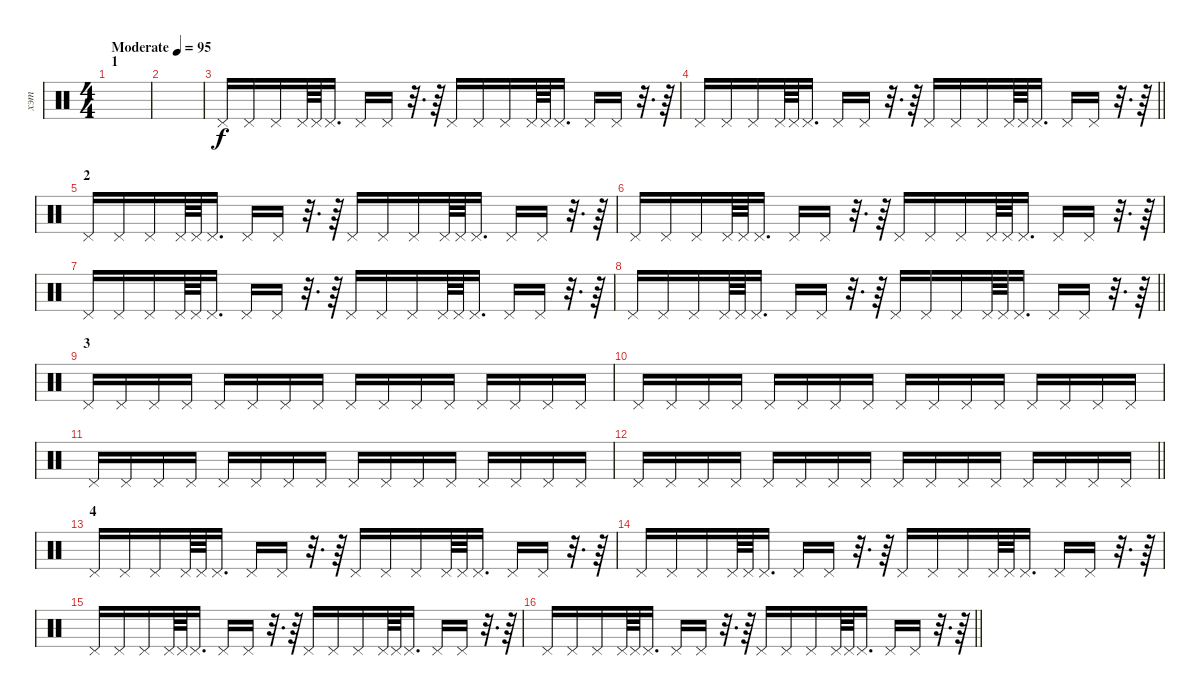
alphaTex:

\track ("хэт" "хэт") {instrument percussion}
\staff {score}
\articulation defaults
\ts (4 4)
\section ("" "1")
\tempo (95 "Moderate")
\clef neutral
\ks c
|
|
"Pedal Hi-Hat (hit)".16 "Pedal Hi-Hat (hit)".16 "Pedal Hi-Hat (hit)".16 "Pedal Hi-Hat (hit)".64 "Pedal Hi-Hat (hit)".64 "Pedal Hi-Hat (hit)".16{d} "Pedal Hi-Hat (hit)".16 "Pedal Hi-Hat (hit)".16 r.32{d} r.64 "Pedal Hi-Hat (hit)".16 "Pedal Hi-Hat (hit)".16 "Pedal Hi-Hat (hit)".16 "Pedal Hi-Hat (hit)".64 "Pedal Hi-Hat (hit)".64 "Pedal Hi-Hat (hit)".16{d} "Pedal Hi-Hat (hit)".16 "Pedal Hi-Hat (hit)".16 r.32{d} r.64 |
\barLineRight lightlight "Pedal Hi-Hat (hit)".16 "Pedal Hi-Hat (hit)".16 "Pedal Hi-Hat (hit)".16 "Pedal Hi-Hat (hit)".64 "Pedal Hi-Hat (hit)".64 "Pedal Hi-Hat (hit)".16{d} "Pedal Hi-Hat (hit)".16 "Pedal Hi-Hat (hit)".16
r.32{d} r.64 "Pedal Hi-Hat (hit)".16 "Pedal Hi-Hat (hit)".16 "Pedal Hi-Hat (hit)".16 "Pedal Hi-Hat (hit)".64 "Pedal Hi-Hat (hit)".64 "Pedal Hi-Hat (hit)".16{d} "Pedal Hi-Hat (hit)".16 "Pedal Hi-Hat (hit)".16 r.32{d} r.64 |
\section ("" "2")
"Pedal Hi-Hat (hit)".16 "Pedal Hi-Hat (hit)".16 "Pedal Hi-Hat (hit)".16 "Pedal Hi-Hat (hit)".64 "Pedal Hi-Hat (hit)".64 "Pedal Hi-Hat (hit)".16{d} "Pedal Hi-Hat (hit)".16 "Pedal Hi-Hat (hit)".16 r.32{d} r.64 "Pedal Hi-Hat (hit)".16 "Pedal Hi-Hat (hit)".16 "Pedal Hi-Hat (hit)".16 "Pedal Hi-Hat (hit)".64 "Pedal Hi-Hat (hit)".64 "Pedal Hi-Hat (hit)".16{d} "Pedal Hi-Hat (hit)".16 "Pedal Hi-Hat (hit)".16 r.32{d} r.64 |
"Pedal Hi-Hat (hit)".16 "Pedal Hi-Hat (hit)".16 "Pedal Hi-Hat (hit)".16 "Pedal Hi-Hat (hit)".64 "Pedal Hi-Hat (hit)".64 "Pedal Hi-Hat (hit)".16{d} "Pedal Hi-Hat (hit)".16 "Pedal Hi-Hat (hit)".16 r.32{d} r.64 "Pedal Hi-Hat (hit)".16 "Pedal Hi-Hat (hit)".16 "Pedal Hi-Hat (hit)".16 "Pedal Hi-Hat (hit)".64 "Pedal Hi-Hat (hit)".64 "Pedal Hi-Hat (hit)".16{d} "Pedal Hi-Hat (hit)".16 "Pedal Hi-Hat (hit)".16 r.32{d} r.64 |
"Pedal Hi-Hat (hit)".16 "Pedal Hi-Hat (hit)".16 "Pedal Hi-Hat (hit)".16 "Pedal Hi-Hat (hit)".64 "Pedal Hi-Hat (hit)".64 "Pedal Hi-Hat (hit)".16{d} "Pedal Hi-Hat (hit)".16 "Pedal Hi-Hat (hit)".16 r.32{d} r.64 "Pedal Hi-Hat (hit)".16 "Pedal Hi-Hat (hit)".16 "Pedal Hi-Hat (hit)".16 "Pedal Hi-Hat (hit)".64 "Pedal Hi-Hat (hit)".64 "Pedal Hi-Hat (hit)".16{d} "Pedal Hi-Hat (hit)".16 "Pedal Hi-Hat (hit)".16 r.32{d} r.64 |
\barLineRight lightlight "Pedal Hi-Hat (hit)".16 "Pedal Hi-Hat (hit)".16 "Pedal Hi-Hat (hit)".16 "Pedal Hi-Hat (hit)".64 "Pedal Hi-Hat (hit)".64 "Pedal Hi-Hat (hit)".16{d} "Pedal Hi-Hat (hit)".16 "Pedal Hi-Hat (hit)".16
r.32{d} r.64 "Pedal Hi-Hat (hit)".16 "Pedal Hi-Hat (hit)".16 "Pedal Hi-Hat (hit)".16 "Pedal Hi-Hat (hit)".64 "Pedal Hi-Hat (hit)".64 "Pedal Hi-Hat (hit)".16{d} "Pedal Hi-Hat (hit)".16 "Pedal Hi-Hat (hit)".16 r.32{d} r.64 |
\section ("" "3")
"Pedal Hi-Hat (hit)".16 "Pedal Hi-Hat (hit)".16 "Pedal Hi-Hat (hit)".16 "Pedal Hi-Hat (hit)".16 "Pedal Hi-Hat (hit)".16 "Pedal Hi-Hat (hit)".16 "Pedal Hi-Hat (hit)".16 "Pedal Hi-Hat (hit)".16 "Pedal Hi-Hat (hit)".16 "Pedal Hi-Hat (hit)".16 "Pedal Hi-Hat (hit)".16 "Pedal Hi-Hat (hit)".16 "Pedal Hi-Hat (hit)".16 "Pedal Hi-Hat (hit)".16 "Pedal Hi-Hat (hit)".16 "Pedal Hi-Hat (hit)".16 |
"Pedal Hi-Hat (hit)".16 "Pedal Hi-Hat (hit)".16 "Pedal Hi-Hat (hit)".16 "Pedal Hi-Hat (hit)".16 "Pedal Hi-Hat (hit)".16 "Pedal Hi-Hat (hit)".16 "Pedal Hi-Hat (hit)".16 "Pedal Hi-Hat (hit)".16 "Pedal Hi-Hat (hit)".16 "Pedal Hi-Hat (hit)".16 "Pedal Hi-Hat (hit)".16 "Pedal Hi-Hat (hit)".16 "Pedal Hi-Hat (hit)".16 "Pedal Hi-Hat (hit)".16 "Pedal Hi-Hat (hit)".16 "Pedal Hi-Hat (hit)".16 |
"Pedal Hi-Hat (hit)".16 "Pedal Hi-Hat (hit)".16 "Pedal Hi-Hat (hit)".16 "Pedal Hi-Hat (hit)".16 "Pedal Hi-Hat (hit)".16 "Pedal Hi-Hat (hit)".16 "Pedal Hi-Hat (hit)".16 "Pedal Hi-Hat (hit)".16 "Pedal Hi-Hat (hit)".16 "Pedal Hi-Hat (hit)".16 "Pedal Hi-Hat (hit)".16 "Pedal Hi-Hat (hit)".16 "Pedal Hi-Hat (hit)".16 "Pedal Hi-Hat (hit)".16 "Pedal Hi-Hat (hit)".16 "Pedal Hi-Hat (hit)".16 |
\barLineRight lightlight "Pedal Hi-Hat (hit)".16 "Pedal Hi-Hat (hit)".16 "Pedal Hi-Hat (hit)".16 "Pedal Hi-Hat (hit)".16 "Pedal Hi-Hat (hit)".16 "Pedal Hi-Hat (hit)".16 "Pedal Hi-Hat (hit)".16 "Pedal Hi-Hat (hit)".16 "Pedal Hi-Hat (hit)".16 "Pedal Hi-Hat (hit)".16 "Pedal Hi-Hat (hit)".16 "Pedal Hi-Hat (hit)".16 "Pedal Hi-Hat (hit)".16 "Pedal Hi-Hat (hit)".16 "Pedal Hi-Hat (hit)".16 "Pedal Hi-Hat (hit)".16
|
\section ("" "4")
"Pedal Hi-Hat (hit)".16 "Pedal Hi-Hat (hit)".16 "Pedal Hi-Hat (hit)".16 "Pedal Hi-Hat (hit)".64 "Pedal Hi-Hat (hit)".64 "Pedal Hi-Hat (hit)".16{d} "Pedal Hi-Hat (hit)".16 "Pedal Hi-Hat (hit)".16 r.32{d} r.64 "Pedal Hi-Hat (hit)".16 "Pedal Hi-Hat (hit)".16 "Pedal Hi-Hat (hit)".16 "Pedal Hi-Hat (hit)".64 "Pedal Hi-Hat (hit)".64 "Pedal Hi-Hat (hit)".16{d} "Pedal Hi-Hat (hit)".16 "Pedal Hi-Hat (hit)".16 r.32{d} r.64 |
"Pedal Hi-Hat (hit)".16 "Pedal Hi-Hat (hit)".16 "Pedal Hi-Hat (hit)".16 "Pedal Hi-Hat (hit)".64 "Pedal Hi-Hat (hit)".64 "Pedal Hi-Hat (hit)".16{d} "Pedal Hi-Hat (hit)".16 "Pedal Hi-Hat (hit)".16 r.32{d} r.64 "Pedal Hi-Hat (hit)".16 "Pedal Hi-Hat (hit)".16 "Pedal Hi-Hat (hit)".16 "Pedal Hi-Hat (hit)".64 "Pedal Hi-Hat (hit)".64 "Pedal Hi-Hat (hit)".16{d} "Pedal Hi-Hat (hit)".16 "Pedal Hi-Hat (hit)".16 r.32{d} r.64 |
"Pedal Hi-Hat (hit)".16 "Pedal Hi-Hat (hit)".16 "Pedal Hi-Hat (hit)".16 "Pedal Hi-Hat (hit)".64 "Pedal Hi-Hat (hit)".64 "Pedal Hi-Hat (hit)".16{d} "Pedal Hi-Hat (hit)".16 "Pedal Hi-Hat (hit)".16 r.32{d} r.64 "Pedal Hi-Hat (hit)".16 "Pedal Hi-Hat (hit)".16 "Pedal Hi-Hat (hit)".16 "Pedal Hi-Hat (hit)".64 "Pedal Hi-Hat (hit)".64 "Pedal Hi-Hat (hit)".16{d} "Pedal Hi-Hat (hit)".16 "Pedal Hi-Hat (hit)".16 r.32{d} r.64 |
\barLineRight lightlight "Pedal Hi-Hat (hit)".16 "Pedal Hi-Hat (hit)".16 "Pedal Hi-Hat (hit)".16 "Pedal Hi-Hat (hit)".64 "Pedal Hi-Hat (hit)".64 "Pedal Hi-Hat (hit)".16{d} "Pedal Hi-Hat (hit)".16 "Pedal Hi-Hat (hit)".16
r.32{d} r.64 "Pedal Hi-Hat (hit)".16 "Pedal Hi-Hat (hit)".16 "Pedal Hi-Hat (hit)".16 "Pedal Hi-Hat (hit)".64 "Pedal Hi-Hat (hit)".64 "Pedal Hi-Hat (hit)".16{d} "Pedal Hi-Hat (hit)".16 "Pedal Hi-Hat (hit)".16 r.32{d} r.64
